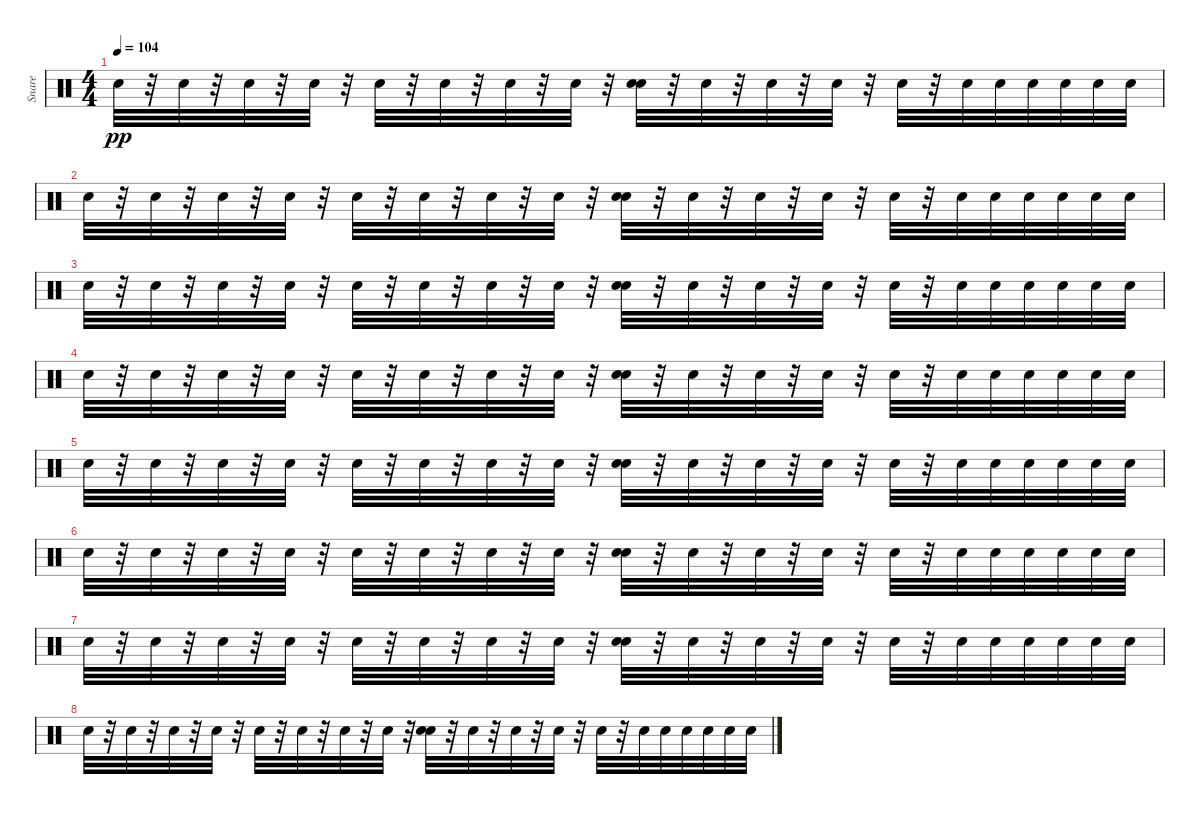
\track ("Snare" "Snare") {instrument percussion}
\staff {score}
\articulation defaults
\ts (4 4)
\tempo 104
\clef neutral
\ks c "Snare (hit) 2".32{dy pp}
r.32 "Snare (hit) 2".32 r.32 "Snare (hit) 2".32 r.32 "Snare (hit) 2".32 r.32 "Snare (hit) 2".32 r.32 "Snare (hit) 2".32 r.32 "Snare (hit) 2".32 r.32 "Snare (hit) 2".32 r.32 ("Snare (hit) 2" "Snare (hit) 2").32 r.32 "Snare (hit) 2".32 r.32 "Snare (hit) 2".32 r.32 "Snare (hit) 2".32 r.32 "Snare (hit) 2".32 r.32 "Snare (hit) 2".32 "Snare (hit) 2".32 "Snare (hit) 2".32 "Snare (hit) 2".32 "Snare (hit) 2".32 "Snare (hit) 2".32 |
"Snare (hit) 2".32 r.32 "Snare (hit) 2".32 r.32 "Snare (hit) 2".32 r.32 "Snare (hit) 2".32 r.32 "Snare (hit) 2".32 r.32 "Snare (hit) 2".32 r.32 "Snare (hit) 2".32 r.32 "Snare (hit) 2".32 r.32 ("Snare (hit) 2" "Snare (hit) 2").32 r.32 "Snare (hit) 2".32 r.32 "Snare (hit) 2".32 r.32 "Snare (hit) 2".32 r.32 "Snare (hit) 2".32 r.32 "Snare (hit) 2".32 "Snare (hit) 2".32 "Snare (hit) 2".32 "Snare (hit) 2".32 "Snare (hit) 2".32 "Snare (hit) 2".32 |
"Snare (hit) 2".32 r.32 "Snare (hit) 2".32 r.32 "Snare (hit) 2".32 r.32 "Snare (hit) 2".32 r.32 "Snare (hit) 2".32 r.32 "Snare (hit) 2".32 r.32 "Snare (hit) 2".32 r.32 "Snare (hit) 2".32 r.32 ("Snare (hit) 2" "Snare (hit) 2").32 r.32 "Snare (hit) 2".32 r.32 "Snare (hit) 2".32 r.32 "Snare (hit) 2".32 r.32 "Snare (hit) 2".32 r.32 "Snare (hit) 2".32 "Snare (hit) 2".32 "Snare (hit) 2".32 "Snare (hit) 2".32 "Snare (hit) 2".32 "Snare (hit) 2".32 |
"Snare (hit) 2".32 r.32 "Snare (hit) 2".32 r.32 "Snare (hit) 2".32 r.32 "Snare (hit) 2".32 r.32 "Snare (hit) 2".32 r.32 "Snare (hit) 2".32 r.32 "Snare (hit) 2".32 r.32 "Snare (hit) 2".32 r.32 ("Snare (hit) 2" "Snare (hit) 2").32 r.32 "Snare (hit) 2".32 r.32 "Snare (hit) 2".32 r.32 "Snare (hit) 2".32 r.32 "Snare (hit) 2".32 r.32 "Snare (hit) 2".32 "Snare (hit) 2".32 "Snare (hit) 2".32 "Snare (hit) 2".32 "Snare (hit) 2".32 "Snare (hit) 2".32 |
"Snare (hit) 2".32 r.32 "Snare (hit) 2".32 r.32 "Snare (hit) 2".32 r.32 "Snare (hit) 2".32 r.32 "Snare (hit) 2".32 r.32 "Snare (hit) 2".32 r.32 "Snare (hit) 2".32 r.32 "Snare (hit) 2".32 r.32 ("Snare (hit) 2" "Snare (hit) 2").32 r.32 "Snare (hit) 2".32 r.32 "Snare (hit) 2".32 r.32 "Snare (hit) 2".32 r.32 "Snare (hit) 2".32 r.32 "Snare (hit) 2".32 "Snare (hit) 2".32 "Snare (hit) 2".32 "Snare (hit) 2".32 "Snare (hit) 2".32 "Snare (hit) 2".32 |
"Snare (hit) 2".32 r.32 "Snare (hit) 2".32 r.32 "Snare (hit) 2".32 r.32 "Snare (hit) 2".32 r.32 "Snare (hit) 2".32 r.32 "Snare (hit) 2".32 r.32 "Snare (hit) 2".32 r.32 "Snare (hit) 2".32 r.32 ("Snare (hit) 2" "Snare (hit) 2").32 r.32 "Snare (hit) 2".32 r.32 "Snare (hit) 2".32 r.32 "Snare (hit) 2".32 r.32 "Snare (hit) 2".32 r.32 "Snare (hit) 2".32 "Snare (hit) 2".32 "Snare (hit) 2".32 "Snare (hit) 2".32 "Snare (hit) 2".32 "Snare (hit) 2".32 |
"Snare (hit) 2".32 r.32 "Snare (hit) 2".32 r.32 "Snare (hit) 2".32 r.32 "Snare (hit) 2".32 r.32 "Snare (hit) 2".32 r.32 "Snare (hit) 2".32 r.32 "Snare (hit) 2".32 r.32 "Snare (hit) 2".32 r.32 ("Snare (hit) 2" "Snare (hit) 2").32 r.32 "Snare (hit) 2".32 r.32 "Snare (hit) 2".32 r.32 "Snare (hit) 2".32 r.32 "Snare (hit) 2".32 r.32 "Snare (hit) 2".32 "Snare (hit) 2".32 "Snare (hit) 2".32 "Snare (hit) 2".32 "Snare (hit) 2".32 "Snare (hit) 2".32 |
"Snare (hit) 2".32 r.32 "Snare (hit) 2".32 r.32 "Snare (hit) 2".32 r.32 "Snare (hit) 2".32 r.32 "Snare (hit) 2".32 r.32 "Snare (hit) 2".32 r.32 "Snare (hit) 2".32 r.32 "Snare (hit) 2".32 r.32 ("Snare (hit) 2" "Snare (hit) 2").32 r.32 "Snare (hit) 2".32 r.32 "Snare (hit) 2".32 r.32 "Snare (hit) 2".32 r.32 "Snare (hit) 2".32 r.32 "Snare (hit) 2".32 "Snare (hit) 2".32 "Snare (hit) 2".32 "Snare (hit) 2".32 "Snare (hit) 2".32 "Snare (hit) 2".32
